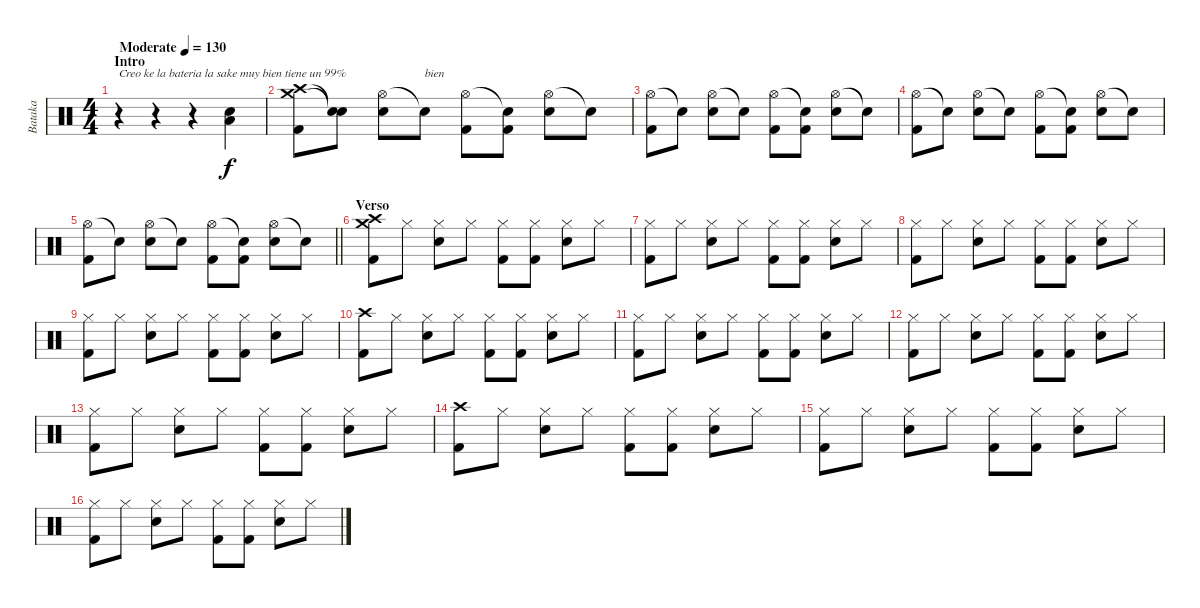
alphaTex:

\track ("Bataka" "Bataka") {instrument percussion}
\staff {score}
\articulation defaults
\ts (4 4)
\section ("" "Intro")
\tempo (130 "Moderate")
\clef neutral
\ks c
r.4{txt "Creo ke la bateria la sake muy bien tiene un 99% " dy f} r.4 r.4 ("Electric Snare (hit)" "Low Floor Tom (hit)").4 |
("Crash medium (hit)" "Crash high (hit)" "Kick (hit) 2").8 ("Snare (hit)"{t} "Snare (hit)"{t}).8 ("Hi-Hat (open)" "Electric Snare (hit)").8 "Snare (hit)"{t}.8{txt "bien"} ("Hi-Hat (open)" "Kick (hit) 2").8 ("Snare (hit)"{t} "Kick (hit) 2").8 ("Hi-Hat (open)" "Electric Snare (hit)").8 "Snare (hit)"{t}.8 |
("Hi-Hat (open)" "Kick (hit) 2").8 "Snare (hit)"{t}.8 ("Hi-Hat (open)" "Electric Snare (hit)").8 "Snare (hit)"{t}.8 ("Hi-Hat (open)" "Kick (hit) 2").8 ("Snare (hit)"{t} "Kick (hit) 2").8 ("Hi-Hat (open)" "Electric Snare (hit)").8 "Snare (hit)"{t}.8 |
("Hi-Hat (open)" "Kick (hit) 2").8 "Snare (hit)"{t}.8 ("Hi-Hat (open)" "Electric Snare (hit)").8 "Snare (hit)"{t}.8 ("Hi-Hat (open)" "Kick (hit) 2").8 ("Snare (hit)"{t} "Kick (hit) 2").8 ("Hi-Hat (open)" "Electric Snare (hit)").8 "Snare (hit)"{t}.8 |
\barLineRight lightlight
("Hi-Hat (open)" "Kick (hit) 2").8 "Snare (hit)"{t}.8 ("Hi-Hat (open)" "Electric Snare (hit)").8 "Snare (hit)"{t}.8 ("Hi-Hat (open)" "Kick (hit) 2").8 ("Snare (hit)"{t} "Kick (hit) 2").8 ("Hi-Hat (open)" "Electric Snare (hit)").8 "Snare (hit)"{t}.8 |
\section ("" "Verso")
("Crash medium (hit)" "Crash high (hit)" "Kick (hit) 2").8 "Hi-Hat (closed)".8 ("Hi-Hat (closed)" "Electric Snare (hit)").8 "Hi-Hat (closed)".8 ("Hi-Hat (closed)" "Kick (hit) 2").8 ("Hi-Hat (closed)" "Kick (hit) 2").8 ("Hi-Hat (closed)" "Electric Snare (hit)").8 "Hi-Hat (closed)".8 |
("Hi-Hat (closed)" "Kick (hit) 2").8 "Hi-Hat (closed)".8 ("Hi-Hat (closed)" "Electric Snare (hit)").8 "Hi-Hat (closed)".8 ("Hi-Hat (closed)" "Kick (hit) 2").8 ("Hi-Hat (closed)" "Kick (hit) 2").8 ("Hi-Hat (closed)" "Electric Snare (hit)").8 "Hi-Hat (closed)".8 |
("Hi-Hat (closed)" "Kick (hit) 2").8 "Hi-Hat (closed)".8 ("Hi-Hat (closed)" "Electric Snare (hit)").8 "Hi-Hat (closed)".8 ("Hi-Hat (closed)" "Kick (hit) 2").8 ("Hi-Hat (closed)" "Kick (hit) 2").8 ("Hi-Hat (closed)" "Electric Snare (hit)").8 "Hi-Hat (closed)".8 |
("Hi-Hat (closed)" "Kick (hit) 2").8 "Hi-Hat (closed)".8 ("Hi-Hat (closed)" "Electric Snare (hit)").8 "Hi-Hat (closed)".8 ("Hi-Hat (closed)" "Kick (hit) 2").8 ("Hi-Hat (closed)" "Kick (hit) 2").8 ("Hi-Hat (closed)" "Electric Snare (hit)").8 "Hi-Hat (closed)".8 |
("Crash high (hit)" "Kick (hit) 2").8 "Hi-Hat (closed)".8 ("Hi-Hat (closed)" "Electric Snare (hit)").8 "Hi-Hat (closed)".8 ("Hi-Hat (closed)" "Kick (hit) 2").8 ("Hi-Hat (closed)" "Kick (hit) 2").8 ("Hi-Hat (closed)" "Electric Snare (hit)").8 "Hi-Hat (closed)".8 |
("Hi-Hat (closed)" "Kick (hit) 2").8 "Hi-Hat (closed)".8 ("Hi-Hat (closed)" "Electric Snare (hit)").8 "Hi-Hat (closed)".8 ("Hi-Hat (closed)" "Kick (hit) 2").8 ("Hi-Hat (closed)" "Kick (hit) 2").8 ("Hi-Hat (closed)" "Electric Snare (hit)").8 "Hi-Hat (closed)".8 |
("Hi-Hat (closed)" "Kick (hit) 2").8 "Hi-Hat (closed)".8 ("Hi-Hat (closed)" "Electric Snare (hit)").8 "Hi-Hat (closed)".8 ("Hi-Hat (closed)" "Kick (hit) 2").8 ("Hi-Hat (closed)" "Kick (hit) 2").8 ("Hi-Hat (closed)" "Electric Snare (hit)").8 "Hi-Hat (closed)".8 |
("Hi-Hat (closed)" "Kick (hit) 2").8 "Hi-Hat (closed)".8 ("Hi-Hat (closed)" "Electric Snare (hit)").8 "Hi-Hat (closed)".8 ("Hi-Hat (closed)" "Kick (hit) 2").8 ("Hi-Hat (closed)" "Kick (hit) 2").8 ("Hi-Hat (closed)" "Electric Snare (hit)").8 "Hi-Hat (closed)".8 |
("Crash high (hit)" "Kick (hit) 2").8 "Hi-Hat (closed)".8 ("Hi-Hat (closed)" "Electric Snare (hit)").8 "Hi-Hat (closed)".8 ("Hi-Hat (closed)" "Kick (hit) 2").8 ("Hi-Hat (closed)" "Kick (hit) 2").8 ("Hi-Hat (closed)" "Electric Snare (hit)").8 "Hi-Hat (closed)".8 |
("Hi-Hat (closed)" "Kick (hit) 2").8 "Hi-Hat (closed)".8 ("Hi-Hat (closed)" "Electric Snare (hit)").8 "Hi-Hat (closed)".8 ("Hi-Hat (closed)" "Kick (hit) 2").8 ("Hi-Hat (closed)" "Kick (hit) 2").8 ("Hi-Hat (closed)" "Electric Snare (hit)").8 "Hi-Hat (closed)".8 |
("Hi-Hat (closed)" "Kick (hit) 2").8 "Hi-Hat (closed)".8 ("Hi-Hat (closed)" "Electric Snare (hit)").8 "Hi-Hat (closed)".8 ("Hi-Hat (closed)" "Kick (hit) 2").8 ("Hi-Hat (closed)" "Kick (hit) 2").8 ("Hi-Hat (closed)" "Electric Snare (hit)").8 "Hi-Hat (closed)".8
